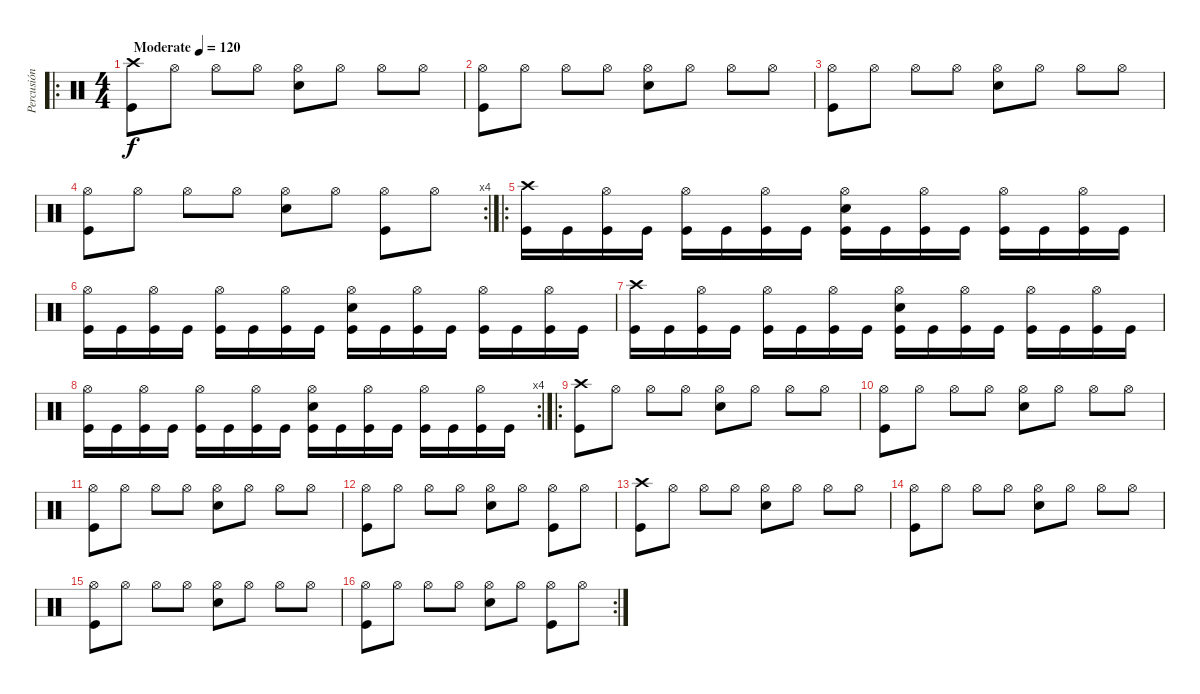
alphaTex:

\track ("Percusión" "Percusión") {instrument percussion}
\staff {score}
\articulation defaults
\ro
\ts (4 4)
\tempo (120 "Moderate")
\clef neutral
\ks c
("Kick (hit)" "Crash high (hit)").8{dy f} "Hi-Hat (open)".8 "Hi-Hat (open)".8 "Hi-Hat (open)".8 ("Hi-Hat (open)" "Electric Snare (hit)").8 "Hi-Hat (open)".8 "Hi-Hat (open)".8 "Hi-Hat (open)".8 |
("Hi-Hat (open)" "Kick (hit)").8 "Hi-Hat (open)".8 "Hi-Hat (open)".8 "Hi-Hat (open)".8 ("Hi-Hat (open)" "Electric Snare (hit)").8 "Hi-Hat (open)".8 "Hi-Hat (open)".8 "Hi-Hat (open)".8 |
("Hi-Hat (open)" "Kick (hit)").8 "Hi-Hat (open)".8 "Hi-Hat (open)".8 "Hi-Hat (open)".8 ("Hi-Hat (open)" "Electric Snare (hit)").8 "Hi-Hat (open)".8 "Hi-Hat (open)".8 "Hi-Hat (open)".8 |
\rc 4
("Hi-Hat (open)" "Kick (hit)").8 "Hi-Hat (open)".8 "Hi-Hat (open)".8 "Hi-Hat (open)".8 ("Hi-Hat (open)" "Electric Snare (hit)").8 "Hi-Hat (open)".8 ("Hi-Hat (open)" "Kick (hit)").8 "Hi-Hat (open)".8 |
\ro
("Crash high (hit)" "Kick (hit)").16 "Kick (hit)".16 ("Kick (hit)" "Hi-Hat (open)").16 "Kick (hit)".16 ("Kick (hit)" "Hi-Hat (open)").16 "Kick (hit)".16 ("Kick (hit)" "Hi-Hat (open)").16 "Kick (hit)".16 ("Electric Snare (hit)" "Kick (hit)" "Hi-Hat (open)").16 "Kick (hit)".16 ("Kick (hit)" "Hi-Hat (open)").16 "Kick (hit)".16 ("Kick (hit)" "Hi-Hat (open)").16 "Kick (hit)".16 ("Kick (hit)" "Hi-Hat (open)").16 "Kick (hit)".16 |
("Hi-Hat (open)" "Kick (hit)").16 "Kick (hit)".16 ("Kick (hit)" "Hi-Hat (open)").16 "Kick (hit)".16 ("Kick (hit)" "Hi-Hat (open)").16 "Kick (hit)".16 ("Kick (hit)" "Hi-Hat (open)").16 "Kick (hit)".16 ("Electric Snare (hit)" "Kick (hit)" "Hi-Hat (open)").16 "Kick (hit)".16 ("Kick (hit)" "Hi-Hat (open)").16 "Kick (hit)".16 ("Kick (hit)" "Hi-Hat (open)").16 "Kick (hit)".16 ("Kick (hit)" "Hi-Hat (open)").16 "Kick (hit)".16 |
("Crash high (hit)" "Kick (hit)").16 "Kick (hit)".16 ("Kick (hit)" "Hi-Hat (open)").16 "Kick (hit)".16 ("Kick (hit)" "Hi-Hat (open)").16 "Kick (hit)".16 ("Kick (hit)" "Hi-Hat (open)").16 "Kick (hit)".16 ("Electric Snare (hit)" "Kick (hit)" "Hi-Hat (open)").16 "Kick (hit)".16 ("Kick (hit)" "Hi-Hat (open)").16 "Kick (hit)".16 ("Kick (hit)" "Hi-Hat (open)").16 "Kick (hit)".16 ("Kick (hit)" "Hi-Hat (open)").16 "Kick (hit)".16 |
\rc 4
("Hi-Hat (open)" "Kick (hit)").16 "Kick (hit)".16 ("Kick (hit)" "Hi-Hat (open)").16 "Kick (hit)".16 ("Kick (hit)" "Hi-Hat (open)").16 "Kick (hit)".16 ("Kick (hit)" "Hi-Hat (open)").16 "Kick (hit)".16 ("Electric Snare (hit)" "Kick (hit)" "Hi-Hat (open)").16 "Kick (hit)".16 ("Kick (hit)" "Hi-Hat (open)").16 "Kick (hit)".16 ("Kick (hit)" "Hi-Hat (open)").16 "Kick (hit)".16 ("Kick (hit)" "Hi-Hat (open)").16 "Kick (hit)".16 |
\ro
("Kick (hit)" "Crash high (hit)").8 "Hi-Hat (open)".8 "Hi-Hat (open)".8 "Hi-Hat (open)".8 ("Hi-Hat (open)" "Electric Snare (hit)").8 "Hi-Hat (open)".8 "Hi-Hat (open)".8 "Hi-Hat (open)".8 |
("Hi-Hat (open)" "Kick (hit)").8 "Hi-Hat (open)".8 "Hi-Hat (open)".8 "Hi-Hat (open)".8 ("Hi-Hat (open)" "Electric Snare (hit)").8 "Hi-Hat (open)".8 "Hi-Hat (open)".8 "Hi-Hat (open)".8 |
("Hi-Hat (open)" "Kick (hit)").8 "Hi-Hat (open)".8 "Hi-Hat (open)".8 "Hi-Hat (open)".8 ("Hi-Hat (open)" "Electric Snare (hit)").8 "Hi-Hat (open)".8 "Hi-Hat (open)".8 "Hi-Hat (open)".8 |
("Hi-Hat (open)" "Kick (hit)").8 "Hi-Hat (open)".8 "Hi-Hat (open)".8 "Hi-Hat (open)".8 ("Hi-Hat (open)" "Electric Snare (hit)").8 "Hi-Hat (open)".8 ("Hi-Hat (open)" "Kick (hit)").8 "Hi-Hat (open)".8 |
("Kick (hit)" "Crash high (hit)").8 "Hi-Hat (open)".8 "Hi-Hat (open)".8 "Hi-Hat (open)".8 ("Hi-Hat (open)" "Electric Snare (hit)").8 "Hi-Hat (open)".8 "Hi-Hat (open)".8 "Hi-Hat (open)".8 |
("Hi-Hat (open)" "Kick (hit)").8 "Hi-Hat (open)".8 "Hi-Hat (open)".8 "Hi-Hat (open)".8 ("Hi-Hat (open)" "Electric Snare (hit)").8 "Hi-Hat (open)".8 "Hi-Hat (open)".8 "Hi-Hat (open)".8 |
("Hi-Hat (open)" "Kick (hit)").8 "Hi-Hat (open)".8 "Hi-Hat (open)".8 "Hi-Hat (open)".8 ("Hi-Hat (open)" "Electric Snare (hit)").8 "Hi-Hat (open)".8 "Hi-Hat (open)".8 "Hi-Hat (open)".8 |
\rc 2
("Hi-Hat (open)" "Kick (hit)").8 "Hi-Hat (open)".8 "Hi-Hat (open)".8 "Hi-Hat (open)".8 ("Hi-Hat (open)" "Electric Snare (hit)").8 "Hi-Hat (open)".8 ("Hi-Hat (open)" "Kick (hit)").8 "Hi-Hat (open)".8
